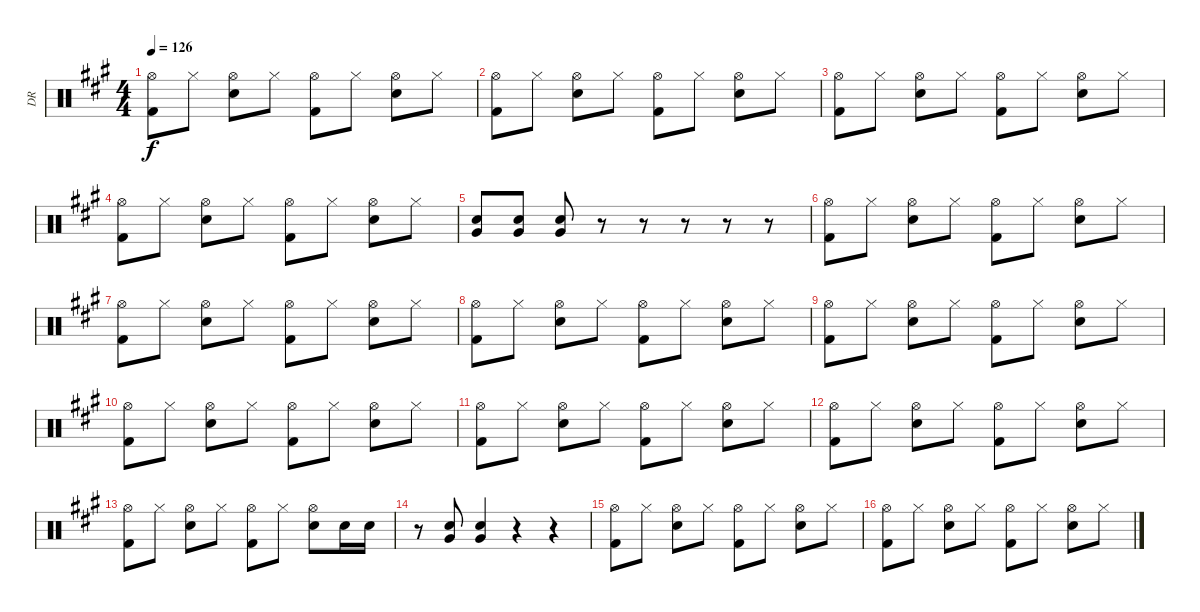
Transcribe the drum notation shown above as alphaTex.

\track ("DR" "DR") {instrument percussion}
\staff {score}
\articulation defaults
\ts (4 4)
\tempo 126
\clef neutral
\ks f#minor
("Hi-Hat (open)" "Kick (hit) 2").8{dy f} "Hi-Hat (closed)".8 ("Hi-Hat (open)" "Electric Snare (hit)").8 "Hi-Hat (closed)".8 ("Hi-Hat (open)" "Kick (hit) 2").8 "Hi-Hat (closed)".8 ("Hi-Hat (open)" "Electric Snare (hit)").8 "Hi-Hat (closed)".8 |
("Hi-Hat (open)" "Kick (hit) 2").8 "Hi-Hat (closed)".8 ("Hi-Hat (open)" "Electric Snare (hit)").8 "Hi-Hat (closed)".8 ("Hi-Hat (open)" "Kick (hit) 2").8 "Hi-Hat (closed)".8 ("Hi-Hat (open)" "Electric Snare (hit)").8 "Hi-Hat (closed)".8 |
("Hi-Hat (open)" "Kick (hit) 2").8 "Hi-Hat (closed)".8 ("Hi-Hat (open)" "Electric Snare (hit)").8 "Hi-Hat (closed)".8 ("Hi-Hat (open)" "Kick (hit) 2").8 "Hi-Hat (closed)".8 ("Hi-Hat (open)" "Electric Snare (hit)").8 "Hi-Hat (closed)".8 |
("Hi-Hat (open)" "Kick (hit) 2").8 "Hi-Hat (closed)".8 ("Hi-Hat (open)" "Electric Snare (hit)").8 "Hi-Hat (closed)".8 ("Hi-Hat (open)" "Kick (hit) 2").8 "Hi-Hat (closed)".8 ("Hi-Hat (open)" "Electric Snare (hit)").8 "Hi-Hat (closed)".8 |
("Very Low Tom (hit)" "Electric Snare (hit)").8 ("Very Low Tom (hit)" "Electric Snare (hit)").8 ("Very Low Tom (hit)" "Electric Snare (hit)").8 r.8 r.8 r.8 r.8 r.8 |
("Hi-Hat (open)" "Kick (hit) 2").8 "Hi-Hat (closed)".8 ("Hi-Hat (open)" "Electric Snare (hit)").8 "Hi-Hat (closed)".8 ("Hi-Hat (open)" "Kick (hit) 2").8 "Hi-Hat (closed)".8 ("Hi-Hat (open)" "Electric Snare (hit)").8 "Hi-Hat (closed)".8 |
("Hi-Hat (open)" "Kick (hit) 2").8 "Hi-Hat (closed)".8 ("Hi-Hat (open)" "Electric Snare (hit)").8 "Hi-Hat (closed)".8 ("Hi-Hat (open)" "Kick (hit) 2").8 "Hi-Hat (closed)".8 ("Hi-Hat (open)" "Electric Snare (hit)").8 "Hi-Hat (closed)".8 |
("Hi-Hat (open)" "Kick (hit) 2").8 "Hi-Hat (closed)".8 ("Hi-Hat (open)" "Electric Snare (hit)").8 "Hi-Hat (closed)".8 ("Hi-Hat (open)" "Kick (hit) 2").8 "Hi-Hat (closed)".8 ("Hi-Hat (open)" "Electric Snare (hit)").8 "Hi-Hat (closed)".8 |
("Hi-Hat (open)" "Kick (hit) 2").8 "Hi-Hat (closed)".8 ("Hi-Hat (open)" "Electric Snare (hit)").8 "Hi-Hat (closed)".8 ("Hi-Hat (open)" "Kick (hit) 2").8 "Hi-Hat (closed)".8 ("Hi-Hat (open)" "Electric Snare (hit)").8 "Hi-Hat (closed)".8 |
("Hi-Hat (open)" "Kick (hit) 2").8 "Hi-Hat (closed)".8 ("Hi-Hat (open)" "Electric Snare (hit)").8 "Hi-Hat (closed)".8 ("Hi-Hat (open)" "Kick (hit) 2").8 "Hi-Hat (closed)".8 ("Hi-Hat (open)" "Electric Snare (hit)").8 "Hi-Hat (closed)".8 |
("Hi-Hat (open)" "Kick (hit) 2").8 "Hi-Hat (closed)".8 ("Hi-Hat (open)" "Electric Snare (hit)").8 "Hi-Hat (closed)".8 ("Hi-Hat (open)" "Kick (hit) 2").8 "Hi-Hat (closed)".8 ("Hi-Hat (open)" "Electric Snare (hit)").8 "Hi-Hat (closed)".8 |
("Hi-Hat (open)" "Kick (hit) 2").8 "Hi-Hat (closed)".8 ("Hi-Hat (open)" "Electric Snare (hit)").8 "Hi-Hat (closed)".8 ("Hi-Hat (open)" "Kick (hit) 2").8 "Hi-Hat (closed)".8 ("Hi-Hat (open)" "Electric Snare (hit)").8 "Hi-Hat (closed)".8 |
("Hi-Hat (open)" "Kick (hit) 2").8 "Hi-Hat (closed)".8 ("Hi-Hat (open)" "Electric Snare (hit)").8 "Hi-Hat (closed)".8 ("Hi-Hat (open)" "Kick (hit) 2").8 "Hi-Hat (closed)".8 ("Hi-Hat (open)" "Electric Snare (hit)").8 "Electric Snare (hit)".16 "Electric Snare (hit)".16 |
r.8 ("Very Low Tom (hit)" "Electric Snare (hit)").8 ("Very Low Tom (hit)" "Electric Snare (hit)").4 r.4 r.4 |
("Hi-Hat (open)" "Kick (hit) 2").8 "Hi-Hat (closed)".8 ("Hi-Hat (open)" "Electric Snare (hit)").8 "Hi-Hat (closed)".8 ("Hi-Hat (open)" "Kick (hit) 2").8 "Hi-Hat (closed)".8 ("Hi-Hat (open)" "Electric Snare (hit)").8 "Hi-Hat (closed)".8 |
("Hi-Hat (open)" "Kick (hit) 2").8 "Hi-Hat (closed)".8 ("Hi-Hat (open)" "Electric Snare (hit)").8 "Hi-Hat (closed)".8 ("Hi-Hat (open)" "Kick (hit) 2").8 "Hi-Hat (closed)".8 ("Hi-Hat (open)" "Electric Snare (hit)").8 "Hi-Hat (closed)".8
